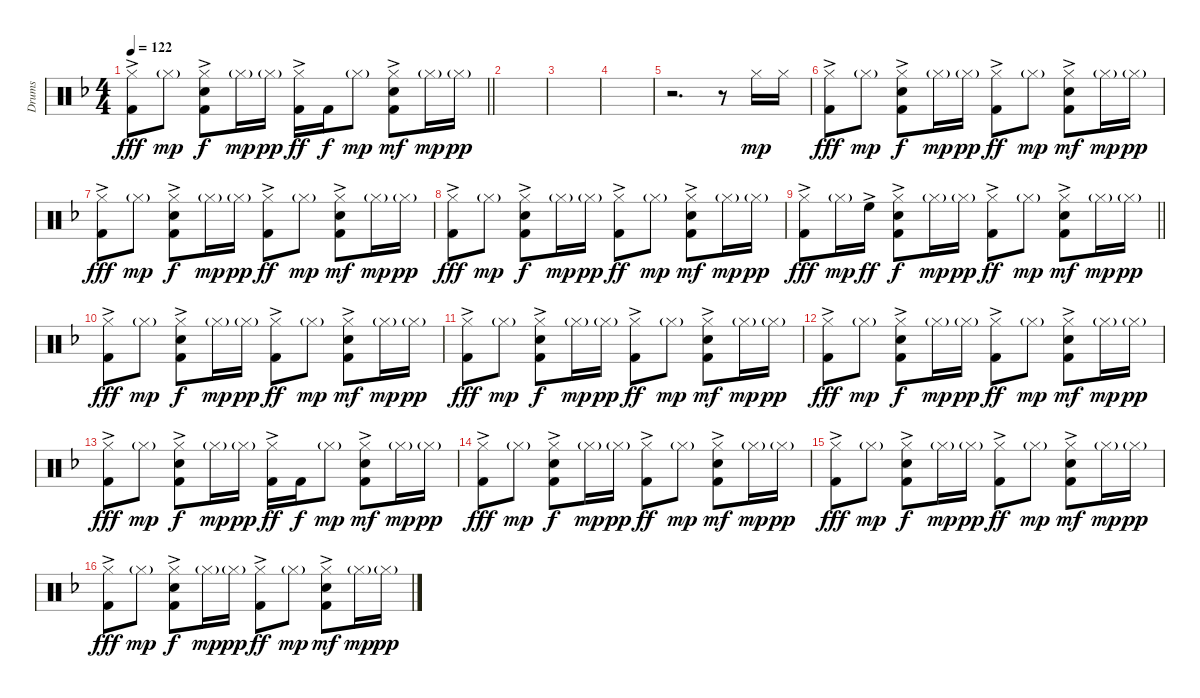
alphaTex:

\track ("Drums" "Drums") {instrument percussion}
\staff {score}
\articulation defaults
\ts (4 4)
\tempo 122
\clef neutral
\barLineRight lightlight
\ks f
("Kick (hit) 2"{ac} "Hi-Hat (closed)").8{dy fff} "Hi-Hat (closed)"{g}.8{dy mp} ("Kick (hit) 2" "Snare (hit) 2"{ac} "Hi-Hat (closed)").8{dy f} "Hi-Hat (closed)"{g}.16{dy mp} "Hi-Hat (closed)"{g}.16{dy pp} ("Kick (hit) 2"{ac} "Hi-Hat (closed)").16{dy ff} "Kick (hit) 2".16{dy f} "Hi-Hat (closed)"{g}.8{dy mp} ("Kick (hit) 2" "Snare (hit) 2"{ac} "Hi-Hat (closed)").8{dy mf} "Hi-Hat (closed)"{g}.16{dy mp} "Hi-Hat (closed)"{g}.16{dy pp} |
|
|
|
r.2{d} r.8 "Hi-Hat (closed)".16{dy mp} "Hi-Hat (closed)".16 |
("Kick (hit) 2"{ac} "Hi-Hat (closed)").8{dy fff} "Hi-Hat (closed)"{g}.8{dy mp} ("Kick (hit) 2" "Snare (hit) 2"{ac} "Hi-Hat (closed)").8{dy f} "Hi-Hat (closed)"{g}.16{dy mp} "Hi-Hat (closed)"{g}.16{dy pp} ("Kick (hit) 2"{ac} "Hi-Hat (closed)").8{dy ff} "Hi-Hat (closed)"{g}.8{dy mp} ("Kick (hit) 2" "Snare (hit) 2"{ac} "Hi-Hat (closed)").8{dy mf} "Hi-Hat (closed)"{g}.16{dy mp} "Hi-Hat (closed)"{g}.16{dy pp} |
("Kick (hit) 2"{ac} "Hi-Hat (closed)").8{dy fff} "Hi-Hat (closed)"{g}.8{dy mp} ("Kick (hit) 2" "Snare (hit) 2"{ac} "Hi-Hat (closed)").8{dy f} "Hi-Hat (closed)"{g}.16{dy mp} "Hi-Hat (closed)"{g}.16{dy pp} ("Kick (hit) 2"{ac} "Hi-Hat (closed)").8{dy ff} "Hi-Hat (closed)"{g}.8{dy mp} ("Kick (hit) 2" "Snare (hit) 2"{ac} "Hi-Hat (closed)").8{dy mf} "Hi-Hat (closed)"{g}.16{dy mp} "Hi-Hat (closed)"{g}.16{dy pp} |
("Kick (hit) 2"{ac} "Hi-Hat (closed)").8{dy fff} "Hi-Hat (closed)"{g}.8{dy mp} ("Kick (hit) 2" "Snare (hit) 2"{ac} "Hi-Hat (closed)").8{dy f} "Hi-Hat (closed)"{g}.16{dy mp} "Hi-Hat (closed)"{g}.16{dy pp} ("Kick (hit) 2"{ac} "Hi-Hat (closed)").8{dy ff} "Hi-Hat (closed)"{g}.8{dy mp} ("Kick (hit) 2" "Snare (hit) 2"{ac} "Hi-Hat (closed)").8{dy mf} "Hi-Hat (closed)"{g}.16{dy mp} "Hi-Hat (closed)"{g}.16{dy pp} |
\barLineRight lightlight
("Kick (hit) 2"{ac} "Hi-Hat (closed)").8{dy fff} "Hi-Hat (closed)"{g}.16{dy mp} "High Floor Tom (hit)"{ac}.16{dy ff} ("Kick (hit) 2" "Snare (hit) 2"{ac} "Hi-Hat (closed)").8{dy f} "Hi-Hat (closed)"{g}.16{dy mp} "Hi-Hat (closed)"{g}.16{dy pp} ("Kick (hit) 2"{ac} "Hi-Hat (closed)").8{dy ff} "Hi-Hat (closed)"{g}.8{dy mp} ("Kick (hit) 2" "Snare (hit) 2"{ac} "Hi-Hat (closed)").8{dy mf} "Hi-Hat (closed)"{g}.16{dy mp} "Hi-Hat (closed)"{g}.16{dy pp} |
("Kick (hit) 2"{ac} "Hi-Hat (closed)").8{dy fff} "Hi-Hat (closed)"{g}.8{dy mp} ("Kick (hit) 2" "Snare (hit) 2"{ac} "Hi-Hat (closed)").8{dy f} "Hi-Hat (closed)"{g}.16{dy mp} "Hi-Hat (closed)"{g}.16{dy pp} ("Kick (hit) 2"{ac} "Hi-Hat (closed)").8{dy ff} "Hi-Hat (closed)"{g}.8{dy mp} ("Kick (hit) 2" "Snare (hit) 2"{ac} "Hi-Hat (closed)").8{dy mf} "Hi-Hat (closed)"{g}.16{dy mp} "Hi-Hat (closed)"{g}.16{dy pp} |
("Kick (hit) 2"{ac} "Hi-Hat (closed)").8{dy fff} "Hi-Hat (closed)"{g}.8{dy mp} ("Kick (hit) 2" "Snare (hit) 2"{ac} "Hi-Hat (closed)").8{dy f} "Hi-Hat (closed)"{g}.16{dy mp} "Hi-Hat (closed)"{g}.16{dy pp} ("Kick (hit) 2"{ac} "Hi-Hat (closed)").8{dy ff} "Hi-Hat (closed)"{g}.8{dy mp} ("Kick (hit) 2" "Snare (hit) 2"{ac} "Hi-Hat (closed)").8{dy mf} "Hi-Hat (closed)"{g}.16{dy mp} "Hi-Hat (closed)"{g}.16{dy pp} |
("Kick (hit) 2"{ac} "Hi-Hat (closed)").8{dy fff} "Hi-Hat (closed)"{g}.8{dy mp} ("Kick (hit) 2" "Snare (hit) 2"{ac} "Hi-Hat (closed)").8{dy f} "Hi-Hat (closed)"{g}.16{dy mp} "Hi-Hat (closed)"{g}.16{dy pp} ("Kick (hit) 2"{ac} "Hi-Hat (closed)").8{dy ff} "Hi-Hat (closed)"{g}.8{dy mp} ("Kick (hit) 2" "Snare (hit) 2"{ac} "Hi-Hat (closed)").8{dy mf} "Hi-Hat (closed)"{g}.16{dy mp} "Hi-Hat (closed)"{g}.16{dy pp} |
("Kick (hit) 2"{ac} "Hi-Hat (closed)").8{dy fff} "Hi-Hat (closed)"{g}.8{dy mp} ("Kick (hit) 2" "Snare (hit) 2"{ac} "Hi-Hat (closed)").8{dy f} "Hi-Hat (closed)"{g}.16{dy mp} "Hi-Hat (closed)"{g}.16{dy pp} ("Kick (hit) 2"{ac} "Hi-Hat (closed)").16{dy ff} "Kick (hit) 2".16{dy f} "Hi-Hat (closed)"{g}.8{dy mp} ("Kick (hit) 2" "Snare (hit) 2"{ac} "Hi-Hat (closed)").8{dy mf} "Hi-Hat (closed)"{g}.16{dy mp} "Hi-Hat (closed)"{g}.16{dy pp} |
("Kick (hit) 2"{ac} "Hi-Hat (closed)").8{dy fff} "Hi-Hat (closed)"{g}.8{dy mp} ("Kick (hit) 2" "Snare (hit) 2"{ac} "Hi-Hat (closed)").8{dy f} "Hi-Hat (closed)"{g}.16{dy mp} "Hi-Hat (closed)"{g}.16{dy pp} ("Kick (hit) 2"{ac} "Hi-Hat (closed)").8{dy ff} "Hi-Hat (closed)"{g}.8{dy mp} ("Kick (hit) 2" "Snare (hit) 2"{ac} "Hi-Hat (closed)").8{dy mf} "Hi-Hat (closed)"{g}.16{dy mp} "Hi-Hat (closed)"{g}.16{dy pp} |
("Kick (hit) 2"{ac} "Hi-Hat (closed)").8{dy fff} "Hi-Hat (closed)"{g}.8{dy mp} ("Kick (hit) 2" "Snare (hit) 2"{ac} "Hi-Hat (closed)").8{dy f} "Hi-Hat (closed)"{g}.16{dy mp} "Hi-Hat (closed)"{g}.16{dy pp} ("Kick (hit) 2"{ac} "Hi-Hat (closed)").8{dy ff} "Hi-Hat (closed)"{g}.8{dy mp} ("Kick (hit) 2" "Snare (hit) 2"{ac} "Hi-Hat (closed)").8{dy mf} "Hi-Hat (closed)"{g}.16{dy mp} "Hi-Hat (closed)"{g}.16{dy pp} |
("Kick (hit) 2"{ac} "Hi-Hat (closed)").8{dy fff} "Hi-Hat (closed)"{g}.8{dy mp} ("Kick (hit) 2" "Snare (hit) 2"{ac} "Hi-Hat (closed)").8{dy f} "Hi-Hat (closed)"{g}.16{dy mp} "Hi-Hat (closed)"{g}.16{dy pp} ("Kick (hit) 2"{ac} "Hi-Hat (closed)").8{dy ff} "Hi-Hat (closed)"{g}.8{dy mp} ("Kick (hit) 2" "Snare (hit) 2"{ac} "Hi-Hat (closed)").8{dy mf} "Hi-Hat (closed)"{g}.16{dy mp} "Hi-Hat (closed)"{g}.16{dy pp}
